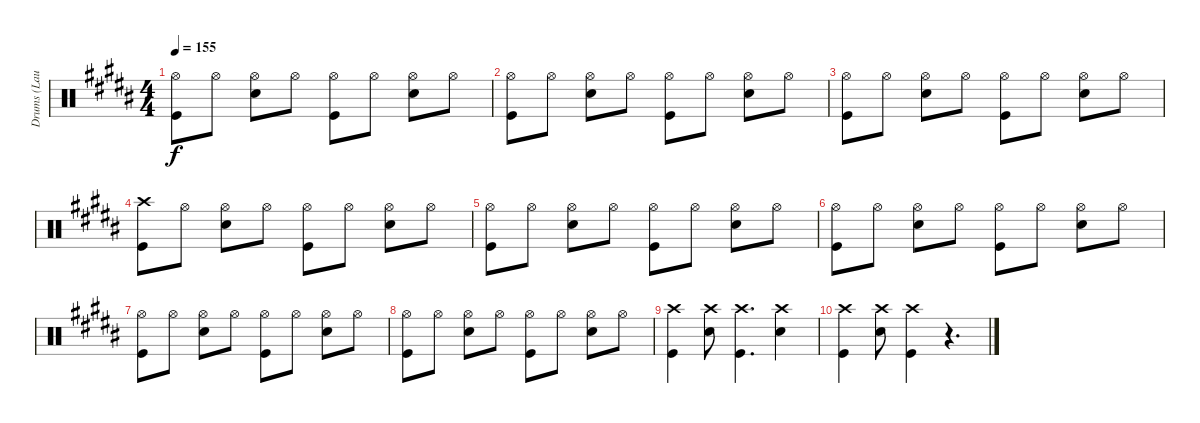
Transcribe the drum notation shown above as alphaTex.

\track ("Drums (Laust Sonne)" "Drums (Lau") {instrument percussion}
\staff {score}
\articulation defaults
\ts (4 4)
\tempo 155
\clef neutral
\ks b
("Hi-Hat (open)" "Kick (hit)").8{dy f} "Hi-Hat (open)".8 ("Hi-Hat (open)" "Snare (hit) 2").8 "Hi-Hat (open)".8 ("Hi-Hat (open)" "Kick (hit)").8 "Hi-Hat (open)".8 ("Hi-Hat (open)" "Snare (hit) 2").8 "Hi-Hat (open)".8 |
("Hi-Hat (open)" "Kick (hit)").8 "Hi-Hat (open)".8 ("Hi-Hat (open)" "Snare (hit) 2").8 "Hi-Hat (open)".8 ("Hi-Hat (open)" "Kick (hit)").8 "Hi-Hat (open)".8 ("Hi-Hat (open)" "Snare (hit) 2").8 "Hi-Hat (open)".8 |
("Hi-Hat (open)" "Kick (hit)").8 "Hi-Hat (open)".8 ("Hi-Hat (open)" "Snare (hit) 2").8 "Hi-Hat (open)".8 ("Hi-Hat (open)" "Kick (hit)").8 "Hi-Hat (open)".8 ("Hi-Hat (open)" "Snare (hit) 2").8 "Hi-Hat (open)".8 |
("Crash high (hit)" "Kick (hit)").8 "Hi-Hat (open)".8 ("Hi-Hat (open)" "Snare (hit) 2").8 "Hi-Hat (open)".8 ("Hi-Hat (open)" "Kick (hit)").8 "Hi-Hat (open)".8 ("Hi-Hat (open)" "Snare (hit) 2").8 "Hi-Hat (open)".8 |
("Hi-Hat (open)" "Kick (hit)").8 "Hi-Hat (open)".8 ("Hi-Hat (open)" "Snare (hit) 2").8 "Hi-Hat (open)".8 ("Hi-Hat (open)" "Kick (hit)").8 "Hi-Hat (open)".8 ("Hi-Hat (open)" "Snare (hit) 2").8 "Hi-Hat (open)".8 |
("Hi-Hat (open)" "Kick (hit)").8 "Hi-Hat (open)".8 ("Hi-Hat (open)" "Snare (hit) 2").8 "Hi-Hat (open)".8 ("Hi-Hat (open)" "Kick (hit)").8 "Hi-Hat (open)".8 ("Hi-Hat (open)" "Snare (hit) 2").8 "Hi-Hat (open)".8 |
("Hi-Hat (open)" "Kick (hit)").8 "Hi-Hat (open)".8 ("Hi-Hat (open)" "Snare (hit) 2").8 "Hi-Hat (open)".8 ("Hi-Hat (open)" "Kick (hit)").8 "Hi-Hat (open)".8 ("Hi-Hat (open)" "Snare (hit) 2").8 "Hi-Hat (open)".8 |
("Hi-Hat (open)" "Kick (hit)").8 "Hi-Hat (open)".8 ("Hi-Hat (open)" "Snare (hit) 2").8 "Hi-Hat (open)".8 ("Hi-Hat (open)" "Kick (hit)").8 "Hi-Hat (open)".8 ("Hi-Hat (open)" "Snare (hit) 2").8 "Hi-Hat (open)".8 |
("Crash high (hit)" "Kick (hit)").4 ("Crash high (hit)" "Snare (hit) 2").8 ("Crash high (hit)" "Kick (hit)").4{d} ("Crash high (hit)" "Snare (hit) 2").4 |
("Crash high (hit)" "Kick (hit)").4 ("Crash high (hit)" "Snare (hit) 2").8 ("Crash high (hit)" "Kick (hit)").4 r.4{d}
